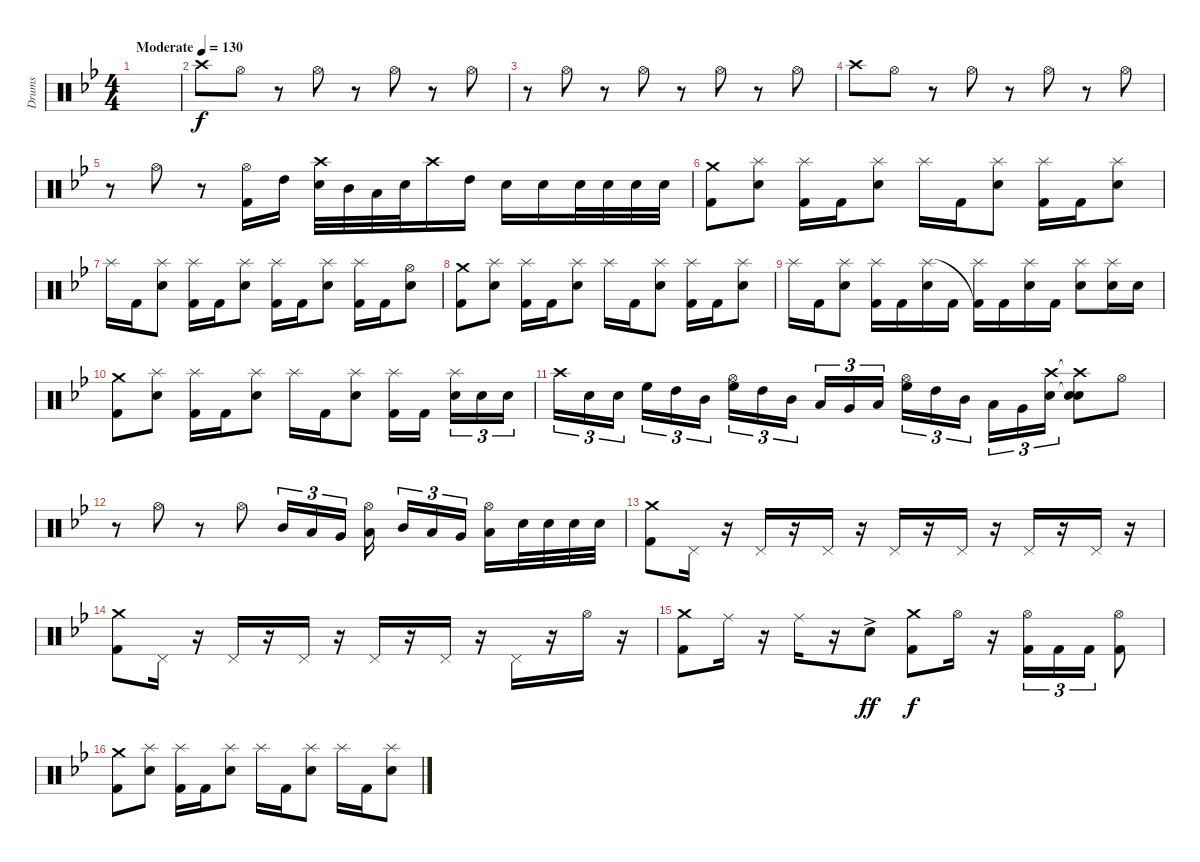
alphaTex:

\track ("Drums" "Drums") {instrument percussion}
\staff {score}
\articulation defaults
\ts (4 4)
\tempo (130 "Moderate")
\clef neutral
\ks bb
|
"Crash high (hit)".8 "Hi-Hat (open)".8 r.8 "Hi-Hat (open)".8 r.8 "Hi-Hat (open)".8 r.8 "Hi-Hat (open)".8 |
r.8 "Hi-Hat (open)".8 r.8 "Hi-Hat (open)".8 r.8 "Hi-Hat (open)".8 r.8 "Hi-Hat (open)".8 |
"Crash high (hit)".8 "Hi-Hat (open)".8 r.8 "Hi-Hat (open)".8 r.8 "Hi-Hat (open)".8 r.8 "Hi-Hat (open)".8 |
r.8 "Hi-Hat (open)".8 r.8 ("Hi-Hat (open)" "Kick (hit) 2").16 "High Tom (hit)".16 ("Electric Snare (hit)" "Crash high (hit)").32 "Mid Tom (hit)".32{volume 11} "Low Tom (hit)".32{volume 9} "Electric Snare (hit)".32{volume 7} "Crash high (hit)".16{volume 13} "High Tom (hit)".16 "Electric Snare (hit)".16{volume 12} "Electric Snare (hit)".16 "Electric Snare (hit)".32{volume 11} "Electric Snare (hit)".32 "Electric Snare (hit)".32{volume 10} "Electric Snare (hit)".32 |
("Crash medium (hit)" "Kick (hit) 2").8{volume 12} ("Splash (hit)" "Electric Snare (hit)").8 ("Splash (hit)" "Kick (hit) 2").16 "Kick (hit) 2".16 ("Electric Snare (hit)" "Splash (hit)").8 "Splash (hit)".16 "Kick (hit) 2".16 ("Electric Snare (hit)" "Splash (hit)").8 ("Splash (hit)" "Kick (hit) 2").16 "Kick (hit) 2".16 ("Electric Snare (hit)" "Splash (hit)").8 |
"Splash (hit)".16 "Kick (hit) 2".16 ("Electric Snare (hit)" "Splash (hit)").8 ("Splash (hit)" "Kick (hit) 2").16 "Kick (hit) 2".16 ("Electric Snare (hit)" "Splash (hit)").8 ("Splash (hit)" "Kick (hit) 2").16 "Kick (hit) 2".16 ("Electric Snare (hit)" "Splash (hit)").8 ("Splash (hit)" "Kick (hit) 2").16 "Kick (hit) 2".16 ("Electric Snare (hit)" "Hi-Hat (open)").8 |
("Crash medium (hit)" "Kick (hit) 2").8 ("Splash (hit)" "Electric Snare (hit)").8 ("Splash (hit)" "Kick (hit) 2").16 "Kick (hit) 2".16 ("Electric Snare (hit)" "Splash (hit)").8 "Splash (hit)".16 "Kick (hit) 2".16 ("Electric Snare (hit)" "Splash (hit)").8 ("Splash (hit)" "Kick (hit) 2").16 "Kick (hit) 2".16 ("Electric Snare (hit)" "Splash (hit)").8 |
"Splash (hit)".16 "Kick (hit) 2".16 ("Electric Snare (hit)" "Splash (hit)").8 ("Splash (hit)" "Kick (hit) 2").16 "Kick (hit) 2".16 ("Electric Snare (hit)" "Splash (hit)").16 "Kick (hit) 2".16 ("Splash (hit)" "Kick (hit) 2"{t}).16 "Kick (hit) 2".16 ("Electric Snare (hit)" "Splash (hit)").16 "Kick (hit) 2".16 ("Electric Snare (hit)" "Splash (hit)").8 ("Electric Snare (hit)" "Splash (hit)").16 "Electric Snare (hit)".16 |
("Crash medium (hit)" "Kick (hit) 2").8 ("Splash (hit)" "Electric Snare (hit)").8 ("Splash (hit)" "Kick (hit) 2").16 "Kick (hit) 2".16 ("Electric Snare (hit)" "Splash (hit)").8 "Splash (hit)".16 "Kick (hit) 2".16 ("Electric Snare (hit)" "Splash (hit)").8 ("Splash (hit)" "Kick (hit) 2").16 "Kick (hit) 2".16{beam splitsecondary} ("Electric Snare (hit)" "Splash (hit)").16{tu (3 2)} "Electric Snare (hit)".16{tu (3 2)} "Electric Snare (hit)".16{tu (3 2)} |
"Crash high (hit)".16{tu (3 2)} "Electric Snare (hit)".16{tu (3 2)} "Electric Snare (hit)".16{tu (3 2) beam splitsecondary} "High Floor Tom (hit)".16{tu (3 2)} "High Tom (hit)".16{tu (3 2)} "Mid Tom (hit)".16{tu (3 2)} ("High Floor Tom (hit)" "Hi-Hat (open)").16{tu (3 2)} "High Tom (hit)".16{tu (3 2)} "Mid Tom (hit)".16{tu (3 2) beam splitsecondary} "Low Tom (hit)".16{tu (3 2)} "Very Low Tom (hit)".16{tu (3 2)} "Low Floor Tom (hit)".16{tu (3 2)} ("High Floor Tom (hit)" "Hi-Hat (open)").16{tu (3 2)} "High Tom (hit)".16{tu (3 2)} "Mid Tom (hit)".16{tu (3 2) beam splitsecondary} "Low Tom (hit)".16{tu (3 2)} "Very Low Tom (hit)".16{tu (3 2)} ("Electric Snare (hit)" "Crash high (hit)").16{tu (3 2)} ("Electric Snare (hit)"{t} "Crash high (hit)"{t} "Snare (hit)").8 "Hi-Hat (open)".8 |
r.8 "Hi-Hat (open)".8 r.8 "Hi-Hat (open)".8 "Mid Tom (hit)".16{tu (3 2)} "Low Tom (hit)".16{tu (3 2)} "Very Low Tom (hit)".16{tu (3 2) beam splitsecondary} ("Low Floor Tom (hit)" "Hi-Hat (open)").16{beam splitsecondary} "Mid Tom (hit)".16{tu (3 2)} "Low Tom (hit)".16{tu (3 2)} "Very Low Tom (hit)".16{tu (3 2) beam splitsecondary} ("Low Floor Tom (hit)" "Hi-Hat (open)").16 "Electric Snare (hit)".32{volume 11} "Electric Snare (hit)".32{volume 10} "Electric Snare (hit)".32{volume 9} "Electric Snare (hit)".32{volume 8} |
("Crash medium (hit)" "Kick (hit) 2").8{volume 12} "Pedal Hi-Hat (hit)".16 r.16 "Pedal Hi-Hat (hit)".16 r.16 "Pedal Hi-Hat (hit)".16 r.16 "Pedal Hi-Hat (hit)".16 r.16 "Pedal Hi-Hat (hit)".16 r.16 "Pedal Hi-Hat (hit)".16 r.16 "Pedal Hi-Hat (hit)".16 r.16 |
("Crash medium (hit)" "Kick (hit) 2").8 "Pedal Hi-Hat (hit)".16 r.16 "Pedal Hi-Hat (hit)".16 r.16 "Pedal Hi-Hat (hit)".16 r.16 "Pedal Hi-Hat (hit)".16 r.16 "Pedal Hi-Hat (hit)".16 r.16 "Pedal Hi-Hat (hit)".16 r.16 "Hi-Hat (open)".16 r.16 |
("Crash medium (hit)" "Kick (hit) 2").8 "Ride (middle)".16 r.16 "Ride (middle)".16 r.16 "Electric Snare (hit)"{ac}.8{dy ff} ("Crash medium (hit)" "Kick (hit) 2").8{dy f} "Hi-Hat (open)".16 r.16 ("Hi-Hat (open)" "Kick (hit) 2").16{tu (3 2)} "Kick (hit) 2".16{tu (3 2)} "Kick (hit) 2".16{tu (3 2)} ("Hi-Hat (open)" "Kick (hit) 2").8 |
("Crash medium (hit)" "Kick (hit) 2").8 ("Splash (hit)" "Electric Snare (hit)").8 ("Splash (hit)" "Kick (hit) 2").16 "Kick (hit) 2".16 ("Electric Snare (hit)" "Splash (hit)").8 "Splash (hit)".16 "Kick (hit) 2".16 ("Electric Snare (hit)" "Splash (hit)").8 "Splash (hit)".16 "Kick (hit) 2".16 ("Electric Snare (hit)" "Splash (hit)").8
